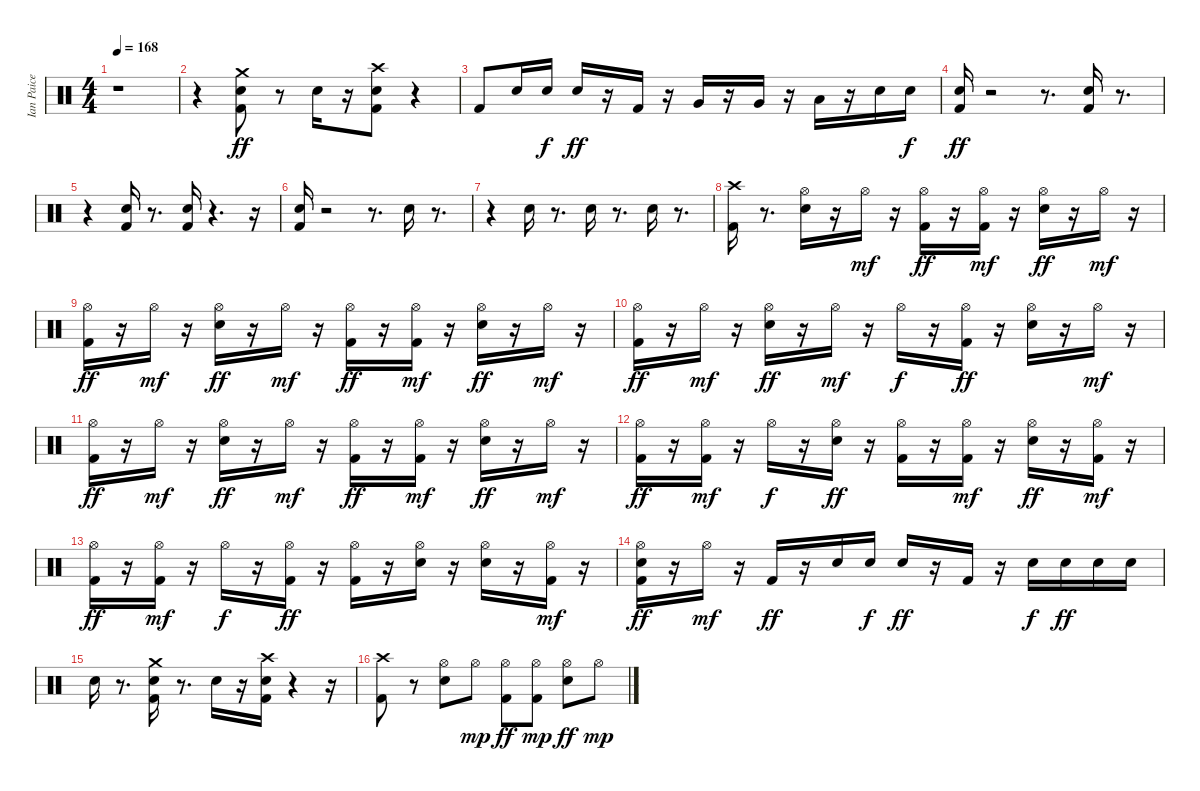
\track ("Ian Paice" "Ian Paice") {instrument percussion}
\staff {score}
\articulation defaults
\ts (4 4)
\tempo 168
\clef neutral
\ks c
r.1{dy ff} |
r.4 ("Crash medium (hit)" "Kick (hit) 2" "Electric Snare (hit)").8 r.8 "Electric Snare (hit)".16 r.16 ("Kick (hit) 2" "Crash high (hit)" "Electric Snare (hit)").8 r.4 |
"Kick (hit) 2".8 "Electric Snare (hit)".16 "Electric Snare (hit)".16{dy f} "Electric Snare (hit)".16{dy ff} r.16 "Kick (hit) 2".16 r.16 "Very Low Tom (hit)".16 r.16 "Very Low Tom (hit)".16 r.16 "Low Floor Tom (hit)".16 r.16 "Electric Snare (hit)".16 "Electric Snare (hit)".16{dy f} |
("Kick (hit) 2" "Electric Snare (hit)").16{dy ff} r.2 r.8{d} ("Kick (hit) 2" "Electric Snare (hit)").16 r.8{d} |
r.4 ("Kick (hit) 2" "Electric Snare (hit)").16 r.8{d} ("Kick (hit) 2" "Electric Snare (hit)").16 r.4{d} r.16 |
("Kick (hit) 2" "Electric Snare (hit)").16 r.2 r.8{d} "Electric Snare (hit)".16 r.8{d} |
r.4 "Electric Snare (hit)".16 r.8{d} "Electric Snare (hit)".16 r.8{d} "Electric Snare (hit)".16 r.8{d} |
("Crash high (hit)" "Kick (hit) 2").16 r.8{d} ("Hi-Hat (open)" "Electric Snare (hit)").16 r.16 "Hi-Hat (open)".16{dy mf} r.16 ("Hi-Hat (open)" "Kick (hit) 2").16{dy ff} r.16 ("Kick (hit) 2" "Hi-Hat (open)").16{dy mf} r.16 ("Hi-Hat (open)" "Electric Snare (hit)").16{dy ff} r.16 "Hi-Hat (open)".16{dy mf} r.16 |
("Hi-Hat (open)" "Kick (hit) 2").16{dy ff} r.16 "Hi-Hat (open)".16{dy mf} r.16 ("Hi-Hat (open)" "Electric Snare (hit)").16{dy ff} r.16 "Hi-Hat (open)".16{dy mf} r.16 ("Hi-Hat (open)" "Kick (hit) 2").16{dy ff} r.16 ("Kick (hit) 2" "Hi-Hat (open)").16{dy mf} r.16 ("Hi-Hat (open)" "Electric Snare (hit)").16{dy ff} r.16 "Hi-Hat (open)".16{dy mf} r.16 |
("Hi-Hat (open)" "Kick (hit) 2").16{dy ff} r.16 "Hi-Hat (open)".16{dy mf} r.16 ("Hi-Hat (open)" "Electric Snare (hit)").16{dy ff} r.16 "Hi-Hat (open)".16{dy mf} r.16 "Hi-Hat (open)".16{dy f} r.16 ("Hi-Hat (open)" "Kick (hit) 2").16{dy ff} r.16 ("Hi-Hat (open)" "Electric Snare (hit)").16 r.16 "Hi-Hat (open)".16{dy mf} r.16 |
("Hi-Hat (open)" "Kick (hit) 2").16{dy ff} r.16 "Hi-Hat (open)".16{dy mf} r.16 ("Hi-Hat (open)" "Electric Snare (hit)").16{dy ff} r.16 "Hi-Hat (open)".16{dy mf} r.16 ("Kick (hit) 2" "Hi-Hat (open)").16{dy ff} r.16 ("Kick (hit) 2" "Hi-Hat (open)").16{dy mf} r.16 ("Hi-Hat (open)" "Electric Snare (hit)").16{dy ff} r.16 "Hi-Hat (open)".16{dy mf} r.16 |
("Hi-Hat (open)" "Kick (hit) 2").16{dy ff} r.16 ("Kick (hit) 2" "Hi-Hat (open)").16{dy mf} r.16 "Hi-Hat (open)".16{dy f} r.16 ("Hi-Hat (open)" "Electric Snare (hit)").16{dy ff} r.16 ("Kick (hit) 2" "Hi-Hat (open)").16 r.16 ("Kick (hit) 2" "Hi-Hat (open)").16{dy mf} r.16 ("Hi-Hat (open)" "Electric Snare (hit)").16{dy ff} r.16 ("Kick (hit) 2" "Hi-Hat (open)").16{dy mf} r.16 |
("Hi-Hat (open)" "Kick (hit) 2").16{dy ff} r.16 ("Kick (hit) 2" "Hi-Hat (open)").16{dy mf} r.16 "Hi-Hat (open)".16{dy f} r.16 ("Hi-Hat (open)" "Kick (hit) 2").16{dy ff} r.16 ("Hi-Hat (open)" "Kick (hit) 2").16 r.16 ("Hi-Hat (open)" "Electric Snare (hit)").16 r.16 ("Hi-Hat (open)" "Electric Snare (hit)").16 r.16 ("Kick (hit) 2" "Hi-Hat (open)").16{dy mf} r.16 |
("Electric Snare (hit)" "Kick (hit) 2" "Hi-Hat (open)").16{dy ff} r.16 "Hi-Hat (open)".16{dy mf} r.16 "Kick (hit) 2".16{dy ff} r.16 "Electric Snare (hit)".16 "Electric Snare (hit)".16{dy f} "Electric Snare (hit)".16{dy ff} r.16 "Kick (hit) 2".16 r.16 "Electric Snare (hit)".16{dy f} "Electric Snare (hit)".16{dy ff} "Electric Snare (hit)".16 "Electric Snare (hit)".16 |
"Electric Snare (hit)".16 r.8{d} ("Crash medium (hit)" "Kick (hit) 2" "Electric Snare (hit)").16 r.8{d} "Electric Snare (hit)".16 r.16 ("Kick (hit) 2" "Crash high (hit)" "Electric Snare (hit)").16 r.4 r.16 |
("Crash high (hit)" "Kick (hit) 2").8 r.8 ("Hi-Hat (open)" "Electric Snare (hit)").8 "Hi-Hat (open)".8{dy mp} ("Kick (hit) 2" "Hi-Hat (open)").8{dy ff} ("Kick (hit) 2" "Hi-Hat (open)").8{dy mp} ("Hi-Hat (open)" "Electric Snare (hit)").8{dy ff} "Hi-Hat (open)".8{dy mp}
